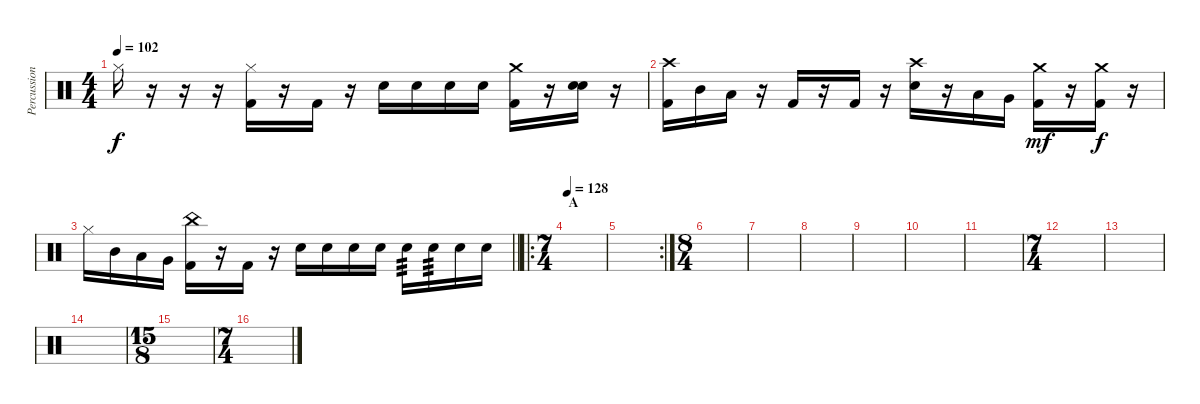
\track ("Percussion" "Percussion") {instrument percussion}
\staff {score}
\articulation defaults
\ts (4 4)
\tempo 102
\clef neutral
\ks c "Hi-Hat (closed)".16{dy f}
r.16 r.16 r.16 ("Hi-Hat (closed)" "Kick (hit) 2").16 r.16 "Kick (hit) 2".16 r.16 "Snare (hit) 2".16 "Snare (hit) 2".16 "Snare (hit) 2".16 "Snare (hit) 2".16 ("Crash medium (hit)" "Kick (hit) 2").16 r.16 ("Snare (hit)" "Snare (hit) 2").16 r.16 |
("Crash high (hit)" "Kick (hit) 2").16 "Mid Tom (hit)".16 "Low Tom (hit)".16 r.16 "Kick (hit) 2".16 r.16 "Kick (hit) 2".16 r.16 ("Crash high (hit)" "Snare (hit) 2").16 r.16 "Low Tom (hit)".16 "Very Low Tom (hit)".16 ("Crash medium (hit)" "Kick (hit) 2").16{dy mf} r.16 ("Crash medium (hit)" "Kick (hit) 2").16{dy f} r.16 |
\barLineRight lightlight "Hi-Hat (closed)".16 "Mid Tom (hit)".16 "Low Tom (hit)".16 "Very Low Tom (hit)".16
("China (hit)" "Kick (hit) 2").16 r.16 "Kick (hit) 2".16 r.16 "Snare (hit) 2".16 "Snare (hit) 2".16 "Snare (hit) 2".16 "Snare (hit) 2".16 "Snare (hit) 2".16{tp 3} "Snare (hit) 2".16{tp 3} "Snare (hit) 2".16 "Snare (hit) 2".16 |
\ro
\ts (7 4)
\section ("" "A")
\tempo 128
|
\rc 2
|
\ts (8 4)
|
|
|
|
|
|
\ts (7 4)
|
|
|
\ts (15 8)
|
\ts (7 4)
